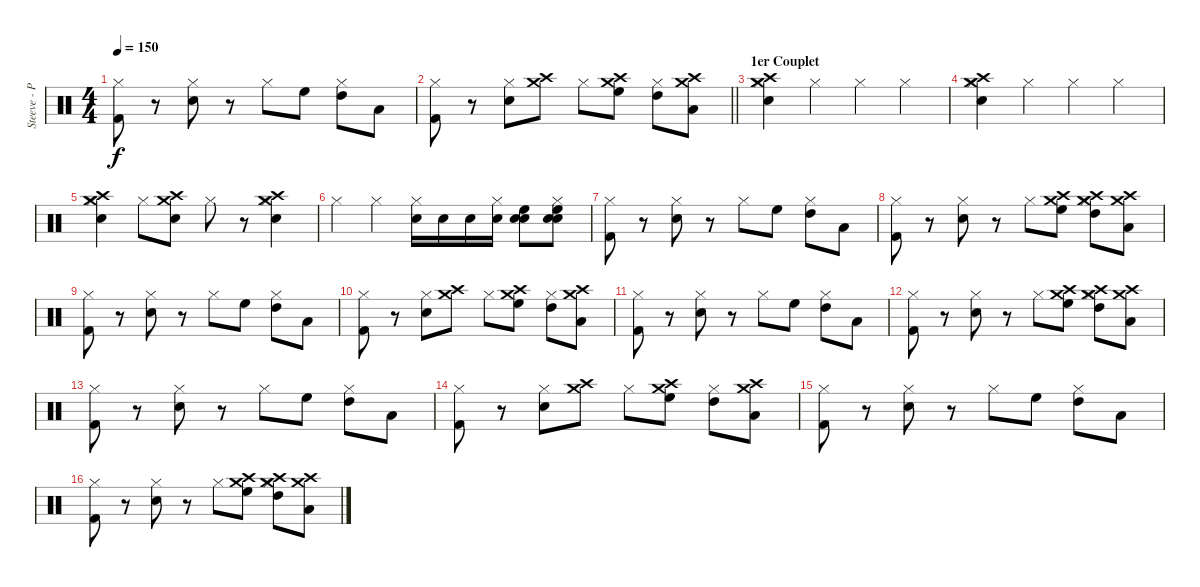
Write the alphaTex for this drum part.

\track ("Steeve - Percussions" "Steeve - P") {instrument percussion}
\staff {score}
\articulation defaults
\ts (4 4)
\tempo 150
\clef neutral
\ks c
("Hi-Hat (closed)" "Kick (hit) 2").8{dy f} r.8 ("Hi-Hat (closed)" "Snare (hit) 2").8 r.8 "Hi-Hat (closed)".8 "High Floor Tom (hit)".8 ("Hi-Hat (closed)" "High Tom (hit)").8 "Low Tom (hit)".8 |
\barLineRight lightlight
("Hi-Hat (closed)" "Kick (hit) 2").8 r.8 ("Hi-Hat (closed)" "Snare (hit) 2").8 ("Crash medium (hit)" "Crash high (hit)").8 "Hi-Hat (closed)".8 ("High Floor Tom (hit)" "Crash medium (hit)" "Crash high (hit)").8 ("Hi-Hat (closed)" "High Tom (hit)").8 ("Low Tom (hit)" "Crash medium (hit)" "Crash high (hit)").8 |
\section ("" "1er Couplet")
("Hi-Hat (closed)" "Crash high (hit)" "Crash medium (hit)" "Snare (hit) 2").4 "Hi-Hat (closed)".4 "Hi-Hat (closed)".4 "Hi-Hat (closed)".4 |
("Hi-Hat (closed)" "Snare (hit) 2" "Crash medium (hit)" "Crash high (hit)").4 "Hi-Hat (closed)".4 "Hi-Hat (closed)".4 "Hi-Hat (closed)".4 |
("Hi-Hat (closed)" "Snare (hit) 2" "Crash medium (hit)" "Crash high (hit)").4 "Hi-Hat (closed)".8 ("Snare (hit) 2" "Crash medium (hit)" "Crash high (hit)").8 "Hi-Hat (closed)".8 r.8 ("Hi-Hat (closed)" "Snare (hit) 2" "Crash medium (hit)" "Crash high (hit)").4 |
"Hi-Hat (closed)".4 "Hi-Hat (closed)".4 ("Hi-Hat (closed)" "Snare (hit) 2").16 "Snare (hit) 2".16 "Snare (hit) 2".16 ("Hi-Hat (closed)" "Snare (hit) 2").16 ("Snare (hit)" "High Floor Tom (hit)" "Snare (hit) 2").8 ("Hi-Hat (closed)" "Snare (hit)" "High Floor Tom (hit)" "Snare (hit) 2").8 |
("Hi-Hat (closed)" "Kick (hit) 2").8 r.8 ("Hi-Hat (closed)" "Snare (hit) 2").8 r.8 "Hi-Hat (closed)".8 "High Floor Tom (hit)".8 ("Hi-Hat (closed)" "High Tom (hit)").8 "Low Tom (hit)".8 |
("Hi-Hat (closed)" "Kick (hit) 2").8 r.8 ("Hi-Hat (closed)" "Snare (hit) 2").8 r.8 "Hi-Hat (closed)".8 ("High Floor Tom (hit)" "Crash medium (hit)" "Crash high (hit)").8 ("Hi-Hat (closed)" "High Tom (hit)" "Crash medium (hit)" "Crash high (hit)").8 ("Low Tom (hit)" "Crash medium (hit)" "Crash high (hit)").8 |
("Hi-Hat (closed)" "Kick (hit) 2").8 r.8 ("Hi-Hat (closed)" "Snare (hit) 2").8 r.8 "Hi-Hat (closed)".8 "High Floor Tom (hit)".8 ("Hi-Hat (closed)" "High Tom (hit)").8 "Low Tom (hit)".8 |
("Hi-Hat (closed)" "Kick (hit) 2").8 r.8 ("Hi-Hat (closed)" "Snare (hit) 2").8 ("Crash medium (hit)" "Crash high (hit)").8 "Hi-Hat (closed)".8 ("High Floor Tom (hit)" "Crash medium (hit)" "Crash high (hit)").8 ("Hi-Hat (closed)" "High Tom (hit)").8 ("Low Tom (hit)" "Crash medium (hit)" "Crash high (hit)").8 |
("Hi-Hat (closed)" "Kick (hit) 2").8 r.8 ("Hi-Hat (closed)" "Snare (hit) 2").8 r.8 "Hi-Hat (closed)".8 "High Floor Tom (hit)".8 ("Hi-Hat (closed)" "High Tom (hit)").8 "Low Tom (hit)".8 |
("Hi-Hat (closed)" "Kick (hit) 2").8 r.8 ("Hi-Hat (closed)" "Snare (hit) 2").8 r.8 "Hi-Hat (closed)".8 ("High Floor Tom (hit)" "Crash medium (hit)" "Crash high (hit)").8 ("Hi-Hat (closed)" "High Tom (hit)" "Crash medium (hit)" "Crash high (hit)").8 ("Low Tom (hit)" "Crash medium (hit)" "Crash high (hit)").8 |
("Hi-Hat (closed)" "Kick (hit) 2").8 r.8 ("Hi-Hat (closed)" "Snare (hit) 2").8 r.8 "Hi-Hat (closed)".8 "High Floor Tom (hit)".8 ("Hi-Hat (closed)" "High Tom (hit)").8 "Low Tom (hit)".8 |
("Hi-Hat (closed)" "Kick (hit) 2").8 r.8 ("Hi-Hat (closed)" "Snare (hit) 2").8 ("Crash medium (hit)" "Crash high (hit)").8 "Hi-Hat (closed)".8 ("High Floor Tom (hit)" "Crash medium (hit)" "Crash high (hit)").8 ("Hi-Hat (closed)" "High Tom (hit)").8 ("Low Tom (hit)" "Crash medium (hit)" "Crash high (hit)").8 |
("Hi-Hat (closed)" "Kick (hit) 2").8 r.8 ("Hi-Hat (closed)" "Snare (hit) 2").8 r.8 "Hi-Hat (closed)".8 "High Floor Tom (hit)".8 ("Hi-Hat (closed)" "High Tom (hit)").8 "Low Tom (hit)".8 |
("Hi-Hat (closed)" "Kick (hit) 2").8 r.8 ("Hi-Hat (closed)" "Snare (hit) 2").8 r.8 "Hi-Hat (closed)".8 ("High Floor Tom (hit)" "Crash medium (hit)" "Crash high (hit)").8 ("Hi-Hat (closed)" "High Tom (hit)" "Crash medium (hit)" "Crash high (hit)").8 ("Low Tom (hit)" "Crash medium (hit)" "Crash high (hit)").8
